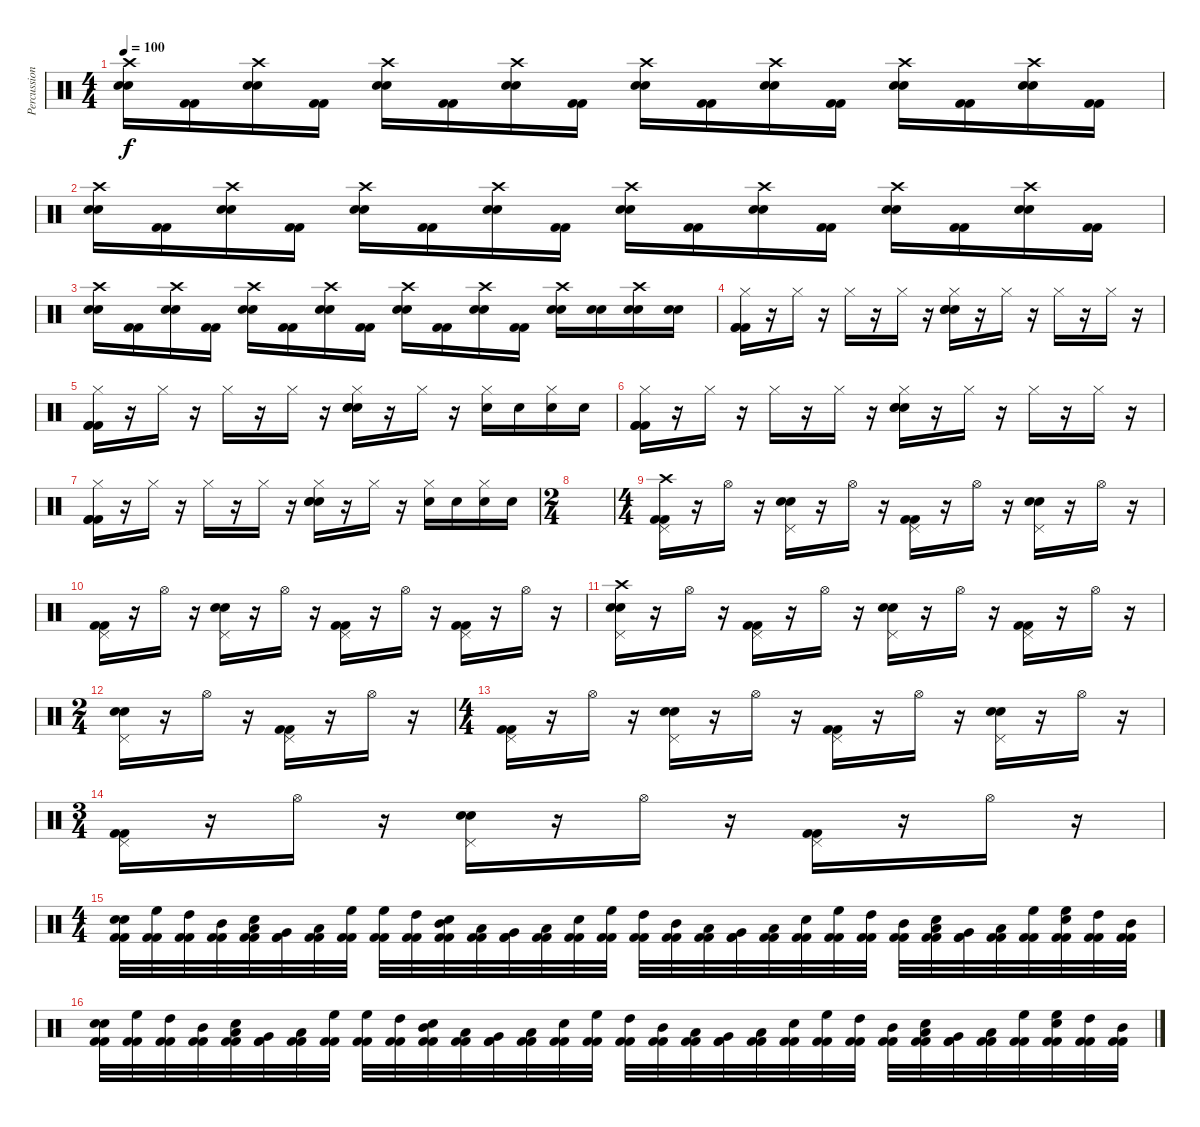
\track ("Percussions" "Percussion") {instrument percussion}
\staff {score}
\articulation defaults
\ts (4 4)
\tempo 100
\clef neutral
\ks c
("Crash high (hit)" "Electric Snare (hit)" "Electric Snare (hit)").16{dy f} ("Kick (hit) 2" "Kick (hit) 2").16 ("Crash high (hit)" "Electric Snare (hit)" "Electric Snare (hit)").16 ("Kick (hit) 2" "Kick (hit) 2").16 ("Crash high (hit)" "Electric Snare (hit)" "Electric Snare (hit)").16 ("Kick (hit) 2" "Kick (hit) 2").16 ("Crash high (hit)" "Electric Snare (hit)" "Electric Snare (hit)").16 ("Kick (hit) 2" "Kick (hit) 2").16 ("Crash high (hit)" "Electric Snare (hit)" "Electric Snare (hit)").16 ("Kick (hit) 2" "Kick (hit) 2").16 ("Crash high (hit)" "Electric Snare (hit)" "Electric Snare (hit)").16 ("Kick (hit) 2" "Kick (hit) 2").16 ("Crash high (hit)" "Electric Snare (hit)" "Electric Snare (hit)").16 ("Kick (hit) 2" "Kick (hit) 2").16 ("Crash high (hit)" "Electric Snare (hit)" "Electric Snare (hit)").16 ("Kick (hit) 2" "Kick (hit) 2").16 |
("Crash high (hit)" "Electric Snare (hit)" "Electric Snare (hit)").16 ("Kick (hit) 2" "Kick (hit) 2").16 ("Crash high (hit)" "Electric Snare (hit)" "Electric Snare (hit)").16 ("Kick (hit) 2" "Kick (hit) 2").16 ("Crash high (hit)" "Electric Snare (hit)" "Electric Snare (hit)").16 ("Kick (hit) 2" "Kick (hit) 2").16 ("Crash high (hit)" "Electric Snare (hit)" "Electric Snare (hit)").16 ("Kick (hit) 2" "Kick (hit) 2").16 ("Crash high (hit)" "Electric Snare (hit)" "Electric Snare (hit)").16 ("Kick (hit) 2" "Kick (hit) 2").16 ("Crash high (hit)" "Electric Snare (hit)" "Electric Snare (hit)").16 ("Kick (hit) 2" "Kick (hit) 2").16 ("Crash high (hit)" "Electric Snare (hit)" "Electric Snare (hit)").16 ("Kick (hit) 2" "Kick (hit) 2").16 ("Crash high (hit)" "Electric Snare (hit)" "Electric Snare (hit)").16 ("Kick (hit) 2" "Kick (hit) 2").16 |
("Crash high (hit)" "Electric Snare (hit)" "Electric Snare (hit)").16 ("Kick (hit) 2" "Kick (hit) 2").16 ("Crash high (hit)" "Electric Snare (hit)" "Electric Snare (hit)").16 ("Kick (hit) 2" "Kick (hit) 2").16 ("Crash high (hit)" "Electric Snare (hit)" "Electric Snare (hit)").16 ("Kick (hit) 2" "Kick (hit) 2").16 ("Crash high (hit)" "Electric Snare (hit)" "Electric Snare (hit)").16 ("Kick (hit) 2" "Kick (hit) 2").16 ("Crash high (hit)" "Electric Snare (hit)" "Electric Snare (hit)").16 ("Kick (hit) 2" "Kick (hit) 2").16 ("Crash high (hit)" "Electric Snare (hit)" "Electric Snare (hit)").16 ("Kick (hit) 2" "Kick (hit) 2").16 ("Crash high (hit)" "Electric Snare (hit)" "Electric Snare (hit)").16 ("Electric Snare (hit)" "Electric Snare (hit)").16 ("Crash high (hit)" "Electric Snare (hit)" "Electric Snare (hit)").16 ("Electric Snare (hit)" "Electric Snare (hit)").16 |
("Hi-Hat (closed)" "Kick (hit) 2" "Kick (hit) 2" "Kick (hit) 2").16 r.16 "Hi-Hat (closed)".16 r.16 "Hi-Hat (closed)".16 r.16 "Hi-Hat (closed)".16 r.16 ("Hi-Hat (closed)" "Electric Snare (hit)" "Electric Snare (hit)" "Electric Snare (hit)").16 r.16 "Hi-Hat (closed)".16 r.16 "Hi-Hat (closed)".16 r.16 "Hi-Hat (closed)".16 r.16 |
("Hi-Hat (closed)" "Kick (hit) 2" "Kick (hit) 2" "Kick (hit) 2").16 r.16 "Hi-Hat (closed)".16 r.16 "Hi-Hat (closed)".16 r.16 "Hi-Hat (closed)".16 r.16 ("Hi-Hat (closed)" "Electric Snare (hit)" "Electric Snare (hit)" "Snare (hit)").16 r.16 "Hi-Hat (closed)".16 r.16 ("Hi-Hat (closed)" "Electric Snare (hit)").16 "Electric Snare (hit)".16 ("Hi-Hat (closed)" "Electric Snare (hit)").16 "Electric Snare (hit)".16 |
("Hi-Hat (closed)" "Kick (hit) 2" "Kick (hit) 2" "Kick (hit) 2").16 r.16 "Hi-Hat (closed)".16 r.16 "Hi-Hat (closed)".16 r.16 "Hi-Hat (closed)".16 r.16 ("Hi-Hat (closed)" "Electric Snare (hit)" "Electric Snare (hit)" "Electric Snare (hit)").16 r.16 "Hi-Hat (closed)".16 r.16 "Hi-Hat (closed)".16 r.16 "Hi-Hat (closed)".16 r.16 |
("Hi-Hat (closed)" "Kick (hit) 2" "Kick (hit) 2" "Kick (hit) 2").16 r.16 "Hi-Hat (closed)".16 r.16 "Hi-Hat (closed)".16 r.16 "Hi-Hat (closed)".16 r.16 ("Hi-Hat (closed)" "Electric Snare (hit)" "Electric Snare (hit)" "Snare (hit)").16 r.16 "Hi-Hat (closed)".16 r.16 ("Hi-Hat (closed)" "Electric Snare (hit)").16 "Electric Snare (hit)".16 ("Hi-Hat (closed)" "Electric Snare (hit)").16 "Electric Snare (hit)".16 |
\ts (2 4)
|
\ts (4 4)
("Crash high (hit)" "Pedal Hi-Hat (hit)" "Kick (hit) 2" "Kick (hit) 2").16 r.16 "Hi-Hat (open)".16 r.16 ("Pedal Hi-Hat (hit)" "Electric Snare (hit)" "Electric Snare (hit)").16 r.16 "Hi-Hat (open)".16 r.16 ("Pedal Hi-Hat (hit)" "Kick (hit) 2" "Kick (hit) 2").16 r.16 "Hi-Hat (open)".16 r.16 ("Pedal Hi-Hat (hit)" "Electric Snare (hit)" "Electric Snare (hit)").16 r.16 "Hi-Hat (open)".16 r.16 |
("Pedal Hi-Hat (hit)" "Kick (hit) 2" "Kick (hit) 2").16 r.16 "Hi-Hat (open)".16 r.16 ("Pedal Hi-Hat (hit)" "Electric Snare (hit)" "Electric Snare (hit)").16 r.16 "Hi-Hat (open)".16 r.16 ("Pedal Hi-Hat (hit)" "Kick (hit) 2" "Kick (hit) 2").16 r.16 "Hi-Hat (open)".16 r.16 ("Pedal Hi-Hat (hit)" "Kick (hit) 2" "Kick (hit) 2").16 r.16 "Hi-Hat (open)".16 r.16 |
("Crash high (hit)" "Pedal Hi-Hat (hit)" "Electric Snare (hit)" "Electric Snare (hit)").16 r.16 "Hi-Hat (open)".16 r.16 ("Pedal Hi-Hat (hit)" "Kick (hit) 2" "Kick (hit) 2").16 r.16 "Hi-Hat (open)".16 r.16 ("Pedal Hi-Hat (hit)" "Electric Snare (hit)" "Electric Snare (hit)").16 r.16 "Hi-Hat (open)".16 r.16 ("Pedal Hi-Hat (hit)" "Kick (hit) 2" "Kick (hit) 2").16 r.16 "Hi-Hat (open)".16 r.16 |
\ts (2 4)
("Pedal Hi-Hat (hit)" "Electric Snare (hit)" "Electric Snare (hit)").16 r.16 "Hi-Hat (open)".16 r.16 ("Pedal Hi-Hat (hit)" "Kick (hit) 2" "Kick (hit) 2").16 r.16 "Hi-Hat (open)".16 r.16 |
\ts (4 4)
("Pedal Hi-Hat (hit)" "Kick (hit) 2" "Kick (hit) 2").16 r.16 "Hi-Hat (open)".16 r.16 ("Pedal Hi-Hat (hit)" "Electric Snare (hit)" "Electric Snare (hit)").16 r.16 "Hi-Hat (open)".16 r.16 ("Pedal Hi-Hat (hit)" "Kick (hit) 2" "Kick (hit) 2").16 r.16 "Hi-Hat (open)".16 r.16 ("Pedal Hi-Hat (hit)" "Electric Snare (hit)" "Electric Snare (hit)").16 r.16 "Hi-Hat (open)".16 r.16 |
\ts (3 4)
("Pedal Hi-Hat (hit)" "Kick (hit) 2" "Kick (hit) 2").16 r.16 "Hi-Hat (open)".16 r.16 ("Pedal Hi-Hat (hit)" "Electric Snare (hit)" "Electric Snare (hit)").16 r.16 "Hi-Hat (open)".16 r.16 ("Pedal Hi-Hat (hit)" "Kick (hit) 2" "Kick (hit) 2").16 r.16 "Hi-Hat (open)".16 r.16 |
\ts (4 4)
("Electric Snare (hit)" "Electric Snare (hit)" "Kick (hit) 2" "Kick (hit) 2").32 ("High Floor Tom (hit)" "Kick (hit) 2" "Kick (hit) 2").32 ("High Tom (hit)" "Kick (hit) 2" "Kick (hit) 2").32 ("Mid Tom (hit)" "Kick (hit) 2" "Kick (hit) 2").32 ("Low Tom (hit)" "Electric Snare (hit)" "Kick (hit) 2" "Kick (hit) 2").32 ("Very Low Tom (hit)" "Kick (hit) 2" "Kick (hit) 2").32 ("Low Floor Tom (hit)" "Kick (hit) 2" "Kick (hit) 2").32 ("High Floor Tom (hit)" "Kick (hit) 2" "Kick (hit) 2").32 ("High Floor Tom (hit)" "Kick (hit) 2" "Kick (hit) 2").32 ("High Tom (hit)" "Kick (hit) 2" "Kick (hit) 2").32 ("Mid Tom (hit)" "Electric Snare (hit)" "Kick (hit) 2" "Kick (hit) 2").32 ("Low Tom (hit)" "Kick (hit) 2" "Kick (hit) 2").32 ("Very Low Tom (hit)" "Kick (hit) 2" "Kick (hit) 2").32 ("Low Floor Tom (hit)" "Kick (hit) 2" "Kick (hit) 2").32 ("Electric Snare (hit)" "Kick (hit) 2" "Kick (hit) 2").32 ("High Floor Tom (hit)" "Kick (hit) 2" "Kick (hit) 2").32 ("High Tom (hit)" "Kick (hit) 2" "Kick (hit) 2").32 ("Mid Tom (hit)" "Kick (hit) 2" "Kick (hit) 2").32 ("Low Tom (hit)" "Kick (hit) 2" "Kick (hit) 2").32 ("Very Low Tom (hit)" "Kick (hit) 2" "Kick (hit) 2").32 ("Low Floor Tom (hit)" "Kick (hit) 2" "Kick (hit) 2").32 ("Electric Snare (hit)" "Kick (hit) 2" "Kick (hit) 2").32 ("High Floor Tom (hit)" "Kick (hit) 2" "Kick (hit) 2").32 ("High Tom (hit)" "Kick (hit) 2" "Kick (hit) 2").32 ("Mid Tom (hit)" "Kick (hit) 2" "Kick (hit) 2").32 ("Low Tom (hit)" "Electric Snare (hit)" "Kick (hit) 2" "Kick (hit) 2").32 ("Very Low Tom (hit)" "Kick (hit) 2" "Kick (hit) 2").32 ("Low Floor Tom (hit)" "Kick (hit) 2" "Kick (hit) 2").32 ("High Floor Tom (hit)" "Kick (hit) 2" "Kick (hit) 2").32 ("High Floor Tom (hit)" "Electric Snare (hit)" "Kick (hit) 2" "Kick (hit) 2").32 ("High Tom (hit)" "Kick (hit) 2" "Kick (hit) 2").32 ("Mid Tom (hit)" "Kick (hit) 2" "Kick (hit) 2").32 |
("Electric Snare (hit)" "Electric Snare (hit)" "Kick (hit) 2" "Kick (hit) 2").32 ("High Floor Tom (hit)" "Kick (hit) 2" "Kick (hit) 2").32 ("High Tom (hit)" "Kick (hit) 2" "Kick (hit) 2").32 ("Mid Tom (hit)" "Kick (hit) 2" "Kick (hit) 2").32 ("Low Tom (hit)" "Electric Snare (hit)" "Kick (hit) 2" "Kick (hit) 2").32 ("Very Low Tom (hit)" "Kick (hit) 2" "Kick (hit) 2").32 ("Low Floor Tom (hit)" "Kick (hit) 2" "Kick (hit) 2").32 ("High Floor Tom (hit)" "Kick (hit) 2" "Kick (hit) 2").32 ("High Floor Tom (hit)" "Kick (hit) 2" "Kick (hit) 2").32 ("High Tom (hit)" "Kick (hit) 2" "Kick (hit) 2").32 ("Mid Tom (hit)" "Electric Snare (hit)" "Kick (hit) 2" "Kick (hit) 2").32 ("Low Tom (hit)" "Kick (hit) 2" "Kick (hit) 2").32 ("Very Low Tom (hit)" "Kick (hit) 2" "Kick (hit) 2").32 ("Low Floor Tom (hit)" "Kick (hit) 2" "Kick (hit) 2").32 ("Electric Snare (hit)" "Kick (hit) 2" "Kick (hit) 2").32 ("High Floor Tom (hit)" "Kick (hit) 2" "Kick (hit) 2").32 ("High Tom (hit)" "Kick (hit) 2" "Kick (hit) 2").32 ("Mid Tom (hit)" "Kick (hit) 2" "Kick (hit) 2").32 ("Low Tom (hit)" "Kick (hit) 2" "Kick (hit) 2").32 ("Very Low Tom (hit)" "Kick (hit) 2" "Kick (hit) 2").32 ("Low Floor Tom (hit)" "Kick (hit) 2" "Kick (hit) 2").32 ("Electric Snare (hit)" "Kick (hit) 2" "Kick (hit) 2").32 ("High Floor Tom (hit)" "Kick (hit) 2" "Kick (hit) 2").32 ("High Tom (hit)" "Kick (hit) 2" "Kick (hit) 2").32 ("Mid Tom (hit)" "Kick (hit) 2" "Kick (hit) 2").32 ("Low Tom (hit)" "Electric Snare (hit)" "Kick (hit) 2" "Kick (hit) 2").32 ("Very Low Tom (hit)" "Kick (hit) 2" "Kick (hit) 2").32 ("Low Floor Tom (hit)" "Kick (hit) 2" "Kick (hit) 2").32 ("High Floor Tom (hit)" "Kick (hit) 2" "Kick (hit) 2").32 ("High Floor Tom (hit)" "Electric Snare (hit)" "Kick (hit) 2" "Kick (hit) 2").32 ("High Tom (hit)" "Kick (hit) 2" "Kick (hit) 2").32 ("Mid Tom (hit)" "Kick (hit) 2" "Kick (hit) 2").32
